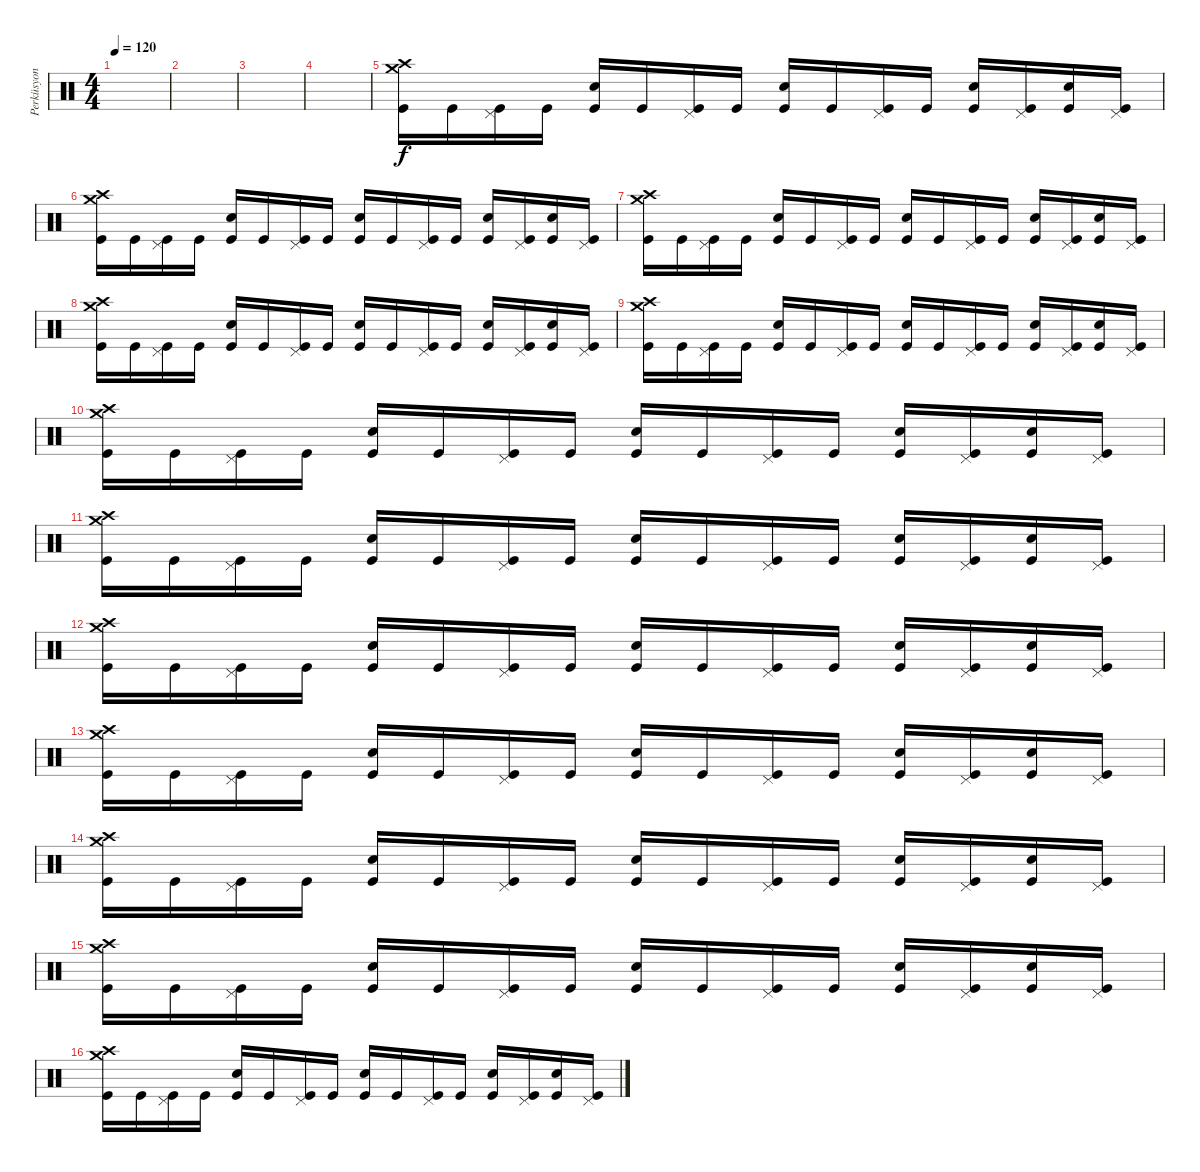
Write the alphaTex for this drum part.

\track ("Perküsyon" "Perküsyon") {instrument percussion}
\staff {score}
\articulation defaults
\ts (4 4)
\tempo 120
\clef neutral
\ks c
|
|
|
|
("Crash high (hit)" "Crash medium (hit)" "Kick (hit)").16 "Kick (hit)".16 ("Pedal Hi-Hat (hit)" "Kick (hit)").16 "Kick (hit)".16 ("Snare (hit) 2" "Kick (hit)").16 "Kick (hit)".16 ("Pedal Hi-Hat (hit)" "Kick (hit)").16 "Kick (hit)".16 ("Electric Snare (hit)" "Kick (hit)").16 "Kick (hit)".16 ("Pedal Hi-Hat (hit)" "Kick (hit)").16 "Kick (hit)".16 ("Snare (hit) 2" "Kick (hit)").16 ("Pedal Hi-Hat (hit)" "Kick (hit)").16 ("Electric Snare (hit)" "Kick (hit)").16 ("Pedal Hi-Hat (hit)" "Kick (hit)").16 |
("Crash high (hit)" "Crash medium (hit)" "Kick (hit)").16 "Kick (hit)".16 ("Pedal Hi-Hat (hit)" "Kick (hit)").16 "Kick (hit)".16 ("Snare (hit) 2" "Kick (hit)").16 "Kick (hit)".16 ("Pedal Hi-Hat (hit)" "Kick (hit)").16 "Kick (hit)".16 ("Electric Snare (hit)" "Kick (hit)").16 "Kick (hit)".16 ("Pedal Hi-Hat (hit)" "Kick (hit)").16 "Kick (hit)".16 ("Snare (hit) 2" "Kick (hit)").16 ("Pedal Hi-Hat (hit)" "Kick (hit)").16 ("Electric Snare (hit)" "Kick (hit)").16 ("Pedal Hi-Hat (hit)" "Kick (hit)").16 |
("Crash high (hit)" "Crash medium (hit)" "Kick (hit)").16 "Kick (hit)".16 ("Pedal Hi-Hat (hit)" "Kick (hit)").16 "Kick (hit)".16 ("Snare (hit) 2" "Kick (hit)").16 "Kick (hit)".16 ("Pedal Hi-Hat (hit)" "Kick (hit)").16 "Kick (hit)".16 ("Electric Snare (hit)" "Kick (hit)").16 "Kick (hit)".16 ("Pedal Hi-Hat (hit)" "Kick (hit)").16 "Kick (hit)".16 ("Snare (hit) 2" "Kick (hit)").16 ("Pedal Hi-Hat (hit)" "Kick (hit)").16 ("Electric Snare (hit)" "Kick (hit)").16 ("Pedal Hi-Hat (hit)" "Kick (hit)").16 |
("Crash high (hit)" "Crash medium (hit)" "Kick (hit)").16 "Kick (hit)".16 ("Pedal Hi-Hat (hit)" "Kick (hit)").16 "Kick (hit)".16 ("Snare (hit) 2" "Kick (hit)").16 "Kick (hit)".16 ("Pedal Hi-Hat (hit)" "Kick (hit)").16 "Kick (hit)".16 ("Electric Snare (hit)" "Kick (hit)").16 "Kick (hit)".16 ("Pedal Hi-Hat (hit)" "Kick (hit)").16 "Kick (hit)".16 ("Snare (hit) 2" "Kick (hit)").16 ("Pedal Hi-Hat (hit)" "Kick (hit)").16 ("Electric Snare (hit)" "Kick (hit)").16 ("Pedal Hi-Hat (hit)" "Kick (hit)").16 |
("Crash high (hit)" "Crash medium (hit)" "Kick (hit)").16 "Kick (hit)".16 ("Pedal Hi-Hat (hit)" "Kick (hit)").16 "Kick (hit)".16 ("Snare (hit) 2" "Kick (hit)").16 "Kick (hit)".16 ("Pedal Hi-Hat (hit)" "Kick (hit)").16 "Kick (hit)".16 ("Electric Snare (hit)" "Kick (hit)").16 "Kick (hit)".16 ("Pedal Hi-Hat (hit)" "Kick (hit)").16 "Kick (hit)".16 ("Snare (hit) 2" "Kick (hit)").16 ("Pedal Hi-Hat (hit)" "Kick (hit)").16 ("Electric Snare (hit)" "Kick (hit)").16 ("Pedal Hi-Hat (hit)" "Kick (hit)").16 |
("Crash high (hit)" "Crash medium (hit)" "Kick (hit)").16 "Kick (hit)".16 ("Pedal Hi-Hat (hit)" "Kick (hit)").16 "Kick (hit)".16 ("Snare (hit) 2" "Kick (hit)").16 "Kick (hit)".16 ("Pedal Hi-Hat (hit)" "Kick (hit)").16 "Kick (hit)".16 ("Electric Snare (hit)" "Kick (hit)").16 "Kick (hit)".16 ("Pedal Hi-Hat (hit)" "Kick (hit)").16 "Kick (hit)".16 ("Snare (hit) 2" "Kick (hit)").16 ("Pedal Hi-Hat (hit)" "Kick (hit)").16 ("Electric Snare (hit)" "Kick (hit)").16 ("Pedal Hi-Hat (hit)" "Kick (hit)").16 |
("Crash high (hit)" "Crash medium (hit)" "Kick (hit)").16 "Kick (hit)".16 ("Pedal Hi-Hat (hit)" "Kick (hit)").16 "Kick (hit)".16 ("Snare (hit) 2" "Kick (hit)").16 "Kick (hit)".16 ("Pedal Hi-Hat (hit)" "Kick (hit)").16 "Kick (hit)".16 ("Electric Snare (hit)" "Kick (hit)").16 "Kick (hit)".16 ("Pedal Hi-Hat (hit)" "Kick (hit)").16 "Kick (hit)".16 ("Snare (hit) 2" "Kick (hit)").16 ("Pedal Hi-Hat (hit)" "Kick (hit)").16 ("Electric Snare (hit)" "Kick (hit)").16 ("Pedal Hi-Hat (hit)" "Kick (hit)").16 |
("Crash high (hit)" "Crash medium (hit)" "Kick (hit)").16 "Kick (hit)".16 ("Pedal Hi-Hat (hit)" "Kick (hit)").16 "Kick (hit)".16 ("Snare (hit) 2" "Kick (hit)").16 "Kick (hit)".16 ("Pedal Hi-Hat (hit)" "Kick (hit)").16 "Kick (hit)".16 ("Electric Snare (hit)" "Kick (hit)").16 "Kick (hit)".16 ("Pedal Hi-Hat (hit)" "Kick (hit)").16 "Kick (hit)".16 ("Snare (hit) 2" "Kick (hit)").16 ("Pedal Hi-Hat (hit)" "Kick (hit)").16 ("Electric Snare (hit)" "Kick (hit)").16 ("Pedal Hi-Hat (hit)" "Kick (hit)").16 |
("Crash high (hit)" "Crash medium (hit)" "Kick (hit)").16 "Kick (hit)".16 ("Pedal Hi-Hat (hit)" "Kick (hit)").16 "Kick (hit)".16 ("Snare (hit) 2" "Kick (hit)").16 "Kick (hit)".16 ("Pedal Hi-Hat (hit)" "Kick (hit)").16 "Kick (hit)".16 ("Electric Snare (hit)" "Kick (hit)").16 "Kick (hit)".16 ("Pedal Hi-Hat (hit)" "Kick (hit)").16 "Kick (hit)".16 ("Snare (hit) 2" "Kick (hit)").16 ("Pedal Hi-Hat (hit)" "Kick (hit)").16 ("Electric Snare (hit)" "Kick (hit)").16 ("Pedal Hi-Hat (hit)" "Kick (hit)").16 |
("Crash high (hit)" "Crash medium (hit)" "Kick (hit)").16 "Kick (hit)".16 ("Pedal Hi-Hat (hit)" "Kick (hit)").16 "Kick (hit)".16 ("Snare (hit) 2" "Kick (hit)").16 "Kick (hit)".16 ("Pedal Hi-Hat (hit)" "Kick (hit)").16 "Kick (hit)".16 ("Electric Snare (hit)" "Kick (hit)").16 "Kick (hit)".16 ("Pedal Hi-Hat (hit)" "Kick (hit)").16 "Kick (hit)".16 ("Snare (hit) 2" "Kick (hit)").16 ("Pedal Hi-Hat (hit)" "Kick (hit)").16 ("Electric Snare (hit)" "Kick (hit)").16 ("Pedal Hi-Hat (hit)" "Kick (hit)").16 |
("Crash high (hit)" "Crash medium (hit)" "Kick (hit)").16 "Kick (hit)".16 ("Pedal Hi-Hat (hit)" "Kick (hit)").16 "Kick (hit)".16 ("Snare (hit) 2" "Kick (hit)").16 "Kick (hit)".16 ("Pedal Hi-Hat (hit)" "Kick (hit)").16 "Kick (hit)".16 ("Electric Snare (hit)" "Kick (hit)").16 "Kick (hit)".16 ("Pedal Hi-Hat (hit)" "Kick (hit)").16 "Kick (hit)".16 ("Snare (hit) 2" "Kick (hit)").16 ("Pedal Hi-Hat (hit)" "Kick (hit)").16 ("Electric Snare (hit)" "Kick (hit)").16 ("Pedal Hi-Hat (hit)" "Kick (hit)").16 |
("Crash high (hit)" "Crash medium (hit)" "Kick (hit)").16 "Kick (hit)".16 ("Pedal Hi-Hat (hit)" "Kick (hit)").16 "Kick (hit)".16 ("Snare (hit) 2" "Kick (hit)").16 "Kick (hit)".16 ("Pedal Hi-Hat (hit)" "Kick (hit)").16 "Kick (hit)".16 ("Electric Snare (hit)" "Kick (hit)").16 "Kick (hit)".16 ("Pedal Hi-Hat (hit)" "Kick (hit)").16 "Kick (hit)".16 ("Snare (hit) 2" "Kick (hit)").16 ("Pedal Hi-Hat (hit)" "Kick (hit)").16 ("Electric Snare (hit)" "Kick (hit)").16 ("Pedal Hi-Hat (hit)" "Kick (hit)").16
